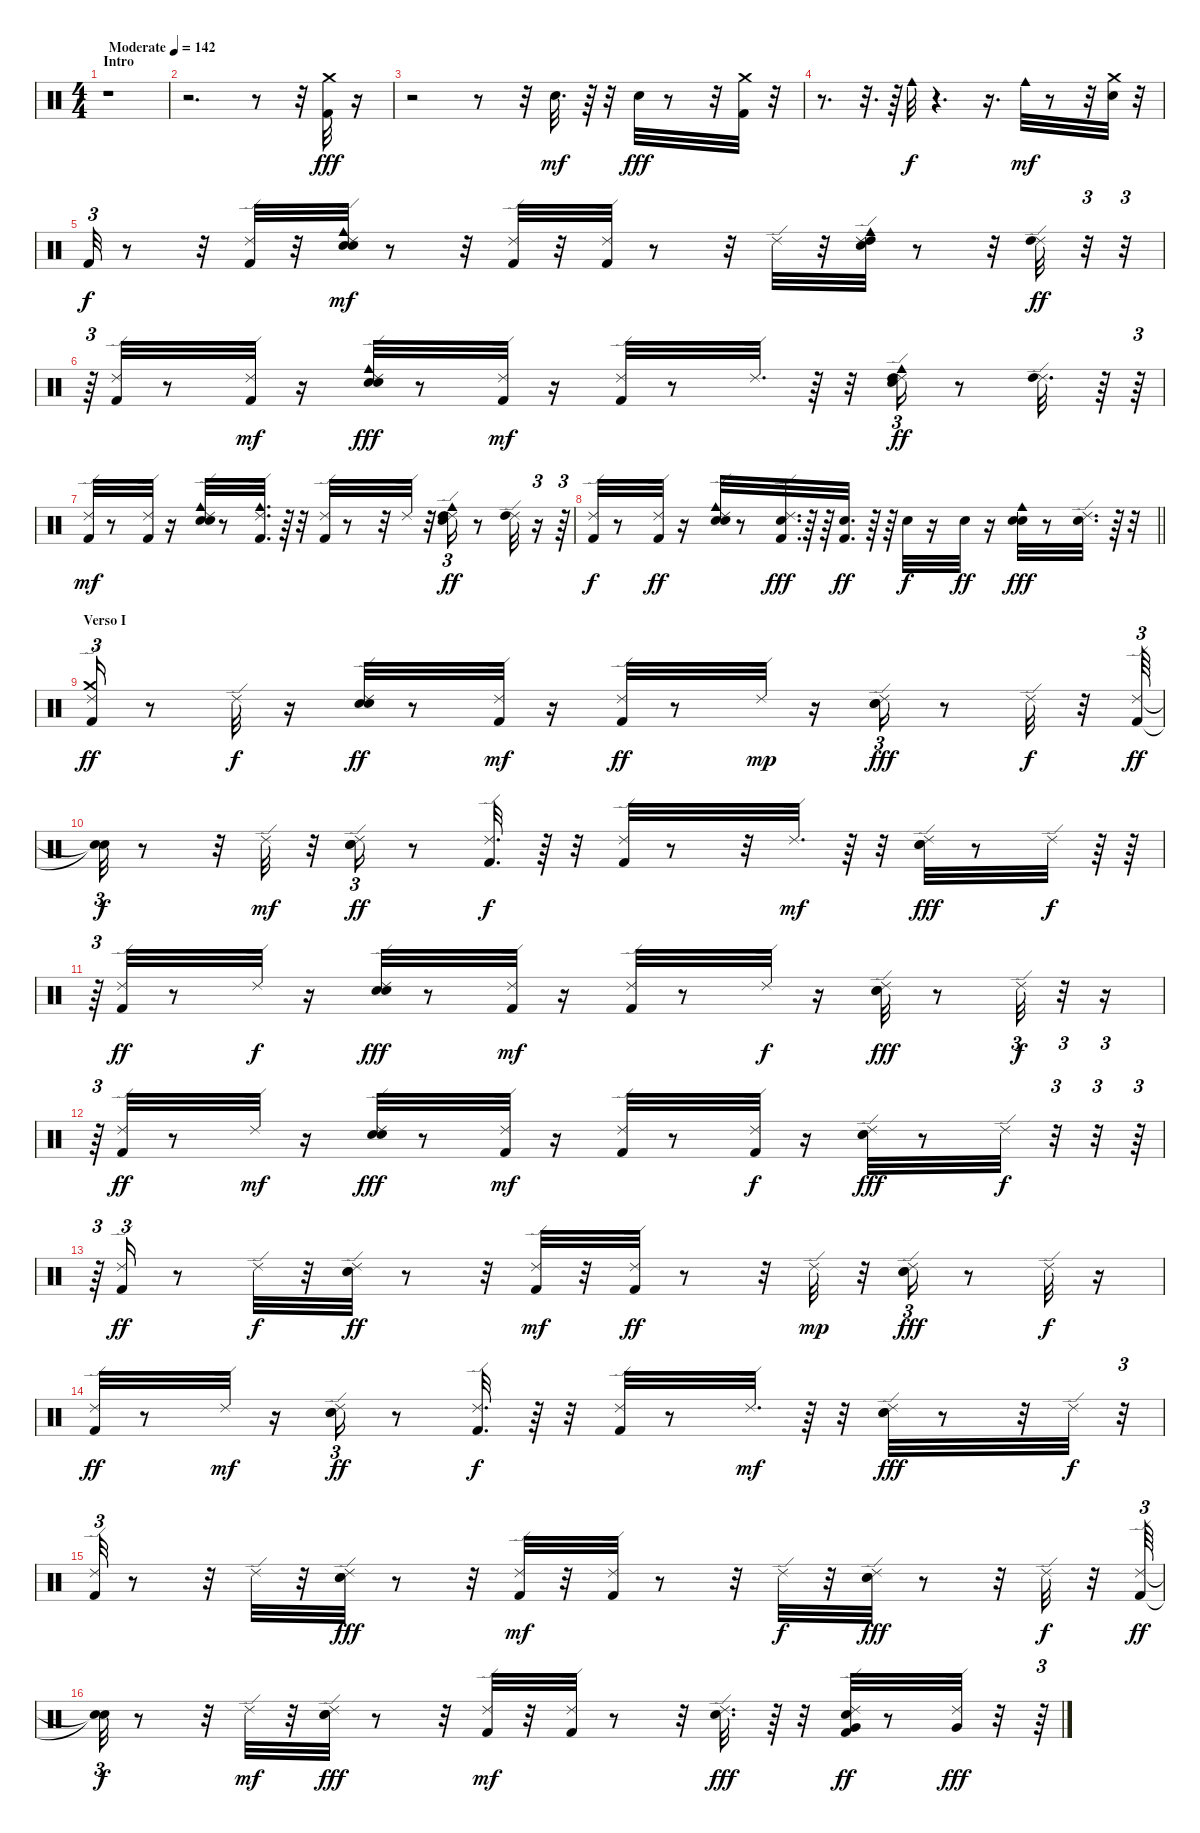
\track "" {instrument percussion}
\staff {score}
\articulation defaults
\ts (4 4)
\section ("" "Intro")
\tempo (142 "Moderate")
\clef neutral
\ks c
r.1{dy fff} |
r.2{d} r.8 r.32 ("Kick (hit) 2" "Crash medium (hit)").32 r.16 |
r.2 r.8 r.32 "Electric Snare (hit)".32{d dy mf} r.64 r.32 "Electric Snare (hit)".32{dy fff} r.8 r.32 ("Crash medium (hit)" "Kick (hit) 2").32 r.32 |
r.8{d} r.32{d} r.64 "Cowbell medium (hit)".32{dy f} r.4{d} r.16{d} "Cowbell medium (hit)".32{dy mf} r.8 r.32 ("Electric Snare (hit)" "Crash medium (hit)").32 r.32 |
"Kick (hit) 2".32{tu (3 2) dy f} r.8 r.32 ("Kick (hit) 2" "Ride (edge) 2").32 r.32 ("Hand Clap (hit)" "Cowbell medium (hit)" "Electric Snare (hit)" "Ride (edge) 2").32{dy mf} r.8 r.32 ("Kick (hit) 2" "Ride (edge) 2").32 r.32 ("Kick (hit) 2" "Ride (edge) 2").32 r.8 r.32 "Ride (edge) 2".32 r.32 ("Hand Clap (hit)" "Cowbell medium (hit)" "High Tom (hit)" "Ride (edge) 2").32 r.8 r.32 ("Ride (edge) 2" "High Tom (hit)").32{dy ff} r.32{tu (3 2)} r.32{tu (3 2)} |
r.64{tu (3 2)} ("Kick (hit) 2" "Ride (edge) 2").32 r.8 ("Kick (hit) 2" "Ride (edge) 2").32{dy mf} r.16 ("Electric Snare (hit)" "Hand Clap (hit)" "Cowbell medium (hit)" "Ride (edge) 2").32{dy fff} r.8 ("Kick (hit) 2" "Ride (edge) 2").32{dy mf} r.16 ("Kick (hit) 2" "Ride (edge) 2").32 r.8 "Ride (edge) 2".32{d} r.64 r.32 ("Ride (edge) 2" "Hand Clap (hit)" "Cowbell medium (hit)" "High Tom (hit)").16{tu (3 2) dy ff} r.8 ("Ride (edge) 2" "High Tom (hit)").32{d} r.64 r.64{tu (3 2)} |
("Kick (hit) 2" "Ride (edge) 2").32{dy mf} r.8 ("Kick (hit) 2" "Ride (edge) 2").32 r.16 ("Electric Snare (hit)" "Hand Clap (hit)" "Cowbell medium (hit)" "Ride (edge) 2").32 r.8 ("Ride (edge) 2" "Cowbell medium (hit)" "Kick (hit) 2").32{d} r.64 r.32 ("Kick (hit) 2" "Ride (edge) 2").32 r.8 r.32 "Ride (edge) 2".32 r.32 ("Hand Clap (hit)" "Cowbell medium (hit)" "Ride (edge) 2" "High Tom (hit)").16{tu (3 2) dy ff} r.8 ("Ride (edge) 2" "High Tom (hit)").32 r.16{tu (3 2)} r.64{tu (3 2)} |
\barLineRight lightlight
("Kick (hit) 2" "Ride (edge) 2").32{dy f} r.8 ("Ride (edge) 2" "Kick (hit) 2").32{dy ff} r.16 ("Electric Snare (hit)" "Hand Clap (hit)" "Cowbell medium (hit)" "Ride (edge) 2").32 r.8 ("Electric Snare (hit)" "Kick (hit) 2" "Ride (edge) 2").32{d dy fff} r.64 r.64 ("Kick (hit) 2" "Electric Snare (hit)").32{d dy ff} r.64 r.64 "Electric Snare (hit)".32{dy f} r.16 "Electric Snare (hit)".32{dy ff} r.16 ("Hand Clap (hit)" "Cowbell medium (hit)" "Electric Snare (hit)").32{dy fff} r.8 ("Ride (edge) 2" "Electric Snare (hit)").32{d} r.64 r.32 |
\section ("" "Verso I")
("Crash medium (hit)" "Ride (edge) 2" "Kick (hit) 2").16{tu (3 2) dy ff} r.8 "Ride (edge) 2".32{dy f} r.16 ("Hand Clap (hit)" "Electric Snare (hit)" "Ride (edge) 2").32{dy ff} r.8 ("Kick (hit) 2" "Ride (edge) 2").32{dy mf} r.16 ("Kick (hit) 2" "Ride (edge) 2").32{dy ff} r.8 "Ride (edge) 2".32{dy mp} r.16 ("Hand Clap (hit)" "Electric Snare (hit)" "Ride (edge) 2").16{tu (3 2) dy fff} r.8 "Ride (edge) 2".32{dy f} r.32 ("Kick (hit) 2" "Ride (edge) 2").64{tu (3 2) dy ff} |
("Snare (hit)"{t} "Snare (hit)"{t}).32{tu (3 2) dy f} r.8 r.32 "Ride (edge) 2".32{dy mf} r.32 ("Hand Clap (hit)" "Electric Snare (hit)" "Ride (edge) 2").16{tu (3 2) dy ff} r.8 ("Kick (hit) 2" "Ride (edge) 2").32{d dy f} r.64 r.32 ("Kick (hit) 2" "Ride (edge) 2").32 r.8 r.32 "Ride (edge) 2".32{d dy mf} r.64 r.32 ("Hand Clap (hit)" "Electric Snare (hit)" "Ride (edge) 2").32{dy fff} r.8 "Ride (edge) 2".32{dy f} r.64 r.64 |
r.64{tu (3 2)} ("Ride (edge) 2" "Kick (hit) 2").32{dy ff} r.8 "Ride (edge) 2".32{dy f} r.16 ("Electric Snare (hit)" "Hand Clap (hit)" "Ride (edge) 2").32{dy fff} r.8 ("Kick (hit) 2" "Ride (edge) 2").32{dy mf} r.16 ("Kick (hit) 2" "Ride (edge) 2").32 r.8 "Ride (edge) 2".32{dy f} r.16 ("Electric Snare (hit)" "Hand Clap (hit)" "Ride (edge) 2").32{dy fff} r.8 "Ride (edge) 2".32{tu (3 2) dy f} r.32{tu (3 2)} r.16{tu (3 2)} |
r.64{tu (3 2)} ("Kick (hit) 2" "Ride (edge) 2").32{dy ff} r.8 "Ride (edge) 2".32{dy mf} r.16 ("Hand Clap (hit)" "Electric Snare (hit)" "Ride (edge) 2").32{dy fff} r.8 ("Kick (hit) 2" "Ride (edge) 2").32{dy mf} r.16 ("Kick (hit) 2" "Ride (edge) 2").32 r.8 ("Ride (edge) 2" "Kick (hit) 2").32{dy f} r.16 ("Electric Snare (hit)" "Hand Clap (hit)" "Ride (edge) 2").32{dy fff} r.8 "Ride (edge) 2".32{dy f} r.32{tu (3 2)} r.32{tu (3 2)} r.64{tu (3 2)} |
r.64{tu (3 2)} ("Ride (edge) 2" "Kick (hit) 2").16{tu (3 2) dy ff} r.8 "Ride (edge) 2".32{dy f} r.32 ("Hand Clap (hit)" "Electric Snare (hit)" "Ride (edge) 2").32{dy ff} r.8 r.32 ("Kick (hit) 2" "Ride (edge) 2").32{dy mf} r.32 ("Kick (hit) 2" "Ride (edge) 2").32{dy ff} r.8 r.32 "Ride (edge) 2".32{dy mp} r.32 ("Hand Clap (hit)" "Electric Snare (hit)" "Ride (edge) 2").16{tu (3 2) dy fff} r.8 "Ride (edge) 2".32{dy f} r.16 |
("Kick (hit) 2" "Ride (edge) 2").32{dy ff} r.8 "Ride (edge) 2".32{dy mf} r.16 ("Hand Clap (hit)" "Electric Snare (hit)" "Ride (edge) 2").16{tu (3 2) dy ff} r.8 ("Kick (hit) 2" "Ride (edge) 2").32{d dy f} r.64 r.32 ("Kick (hit) 2" "Ride (edge) 2").32 r.8 "Ride (edge) 2".32{d dy mf} r.64 r.32 ("Hand Clap (hit)" "Electric Snare (hit)" "Ride (edge) 2").32{dy fff} r.8 r.32 "Ride (edge) 2".32{dy f} r.32{tu (3 2)} |
("Ride (edge) 2" "Kick (hit) 2").32{tu (3 2)} r.8 r.32 "Ride (edge) 2".32 r.32 ("Electric Snare (hit)" "Hand Clap (hit)" "Ride (edge) 2").32{dy fff} r.8 r.32 ("Kick (hit) 2" "Ride (edge) 2").32{dy mf} r.32 ("Kick (hit) 2" "Ride (edge) 2").32 r.8 r.32 "Ride (edge) 2".32{dy f} r.32 ("Electric Snare (hit)" "Hand Clap (hit)" "Ride (edge) 2").32{dy fff} r.8 r.32 "Ride (edge) 2".32{dy f} r.32 ("Kick (hit) 2" "Ride (edge) 2").64{tu (3 2) dy ff} |
("Snare (hit)"{t} "Snare (hit)"{t}).32{tu (3 2) dy f} r.8 r.32 "Ride (edge) 2".32{dy mf} r.32 ("Hand Clap (hit)" "Electric Snare (hit)" "Ride (edge) 2").32{dy fff} r.8 r.32 ("Kick (hit) 2" "Ride (edge) 2").32{dy mf} r.32 ("Kick (hit) 2" "Ride (edge) 2").32 r.8 r.32 ("Electric Snare (hit)" "Ride (edge) 2").32{d dy fff} r.64 r.32 ("Kick (hit) 2" "Hand Clap (hit)" "Very Low Tom (hit)" "Ride (edge) 2").32{dy ff} r.8 ("Ride (edge) 2" "Very Low Tom (hit)").32{dy fff} r.32 r.64{tu (3 2)}
